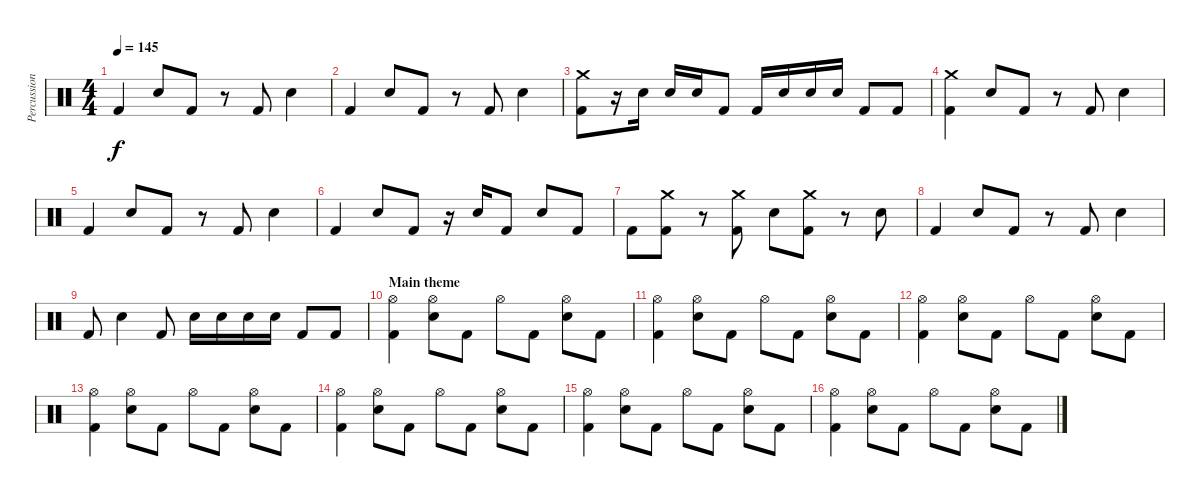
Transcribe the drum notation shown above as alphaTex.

\track ("Percussioni" "Percussion") {instrument percussion}
\staff {score}
\articulation defaults
\ts (4 4)
\tempo 145
\clef neutral
\ks c "Kick (hit) 2".4{dy f} "Electric Snare (hit)".8 "Kick (hit) 2".8
r.8 "Kick (hit) 2".8 "Electric Snare (hit)".4 |
"Kick (hit) 2".4 "Electric Snare (hit)".8 "Kick (hit) 2".8 r.8 "Kick (hit) 2".8 "Electric Snare (hit)".4 |
("Crash medium (hit)" "Kick (hit) 2").8 r.16 "Electric Snare (hit)".16 "Electric Snare (hit)".16 "Electric Snare (hit)".16 "Kick (hit) 2".8 "Kick (hit) 2".16 "Electric Snare (hit)".16 "Electric Snare (hit)".16 "Electric Snare (hit)".16 "Kick (hit) 2".8 "Kick (hit) 2".8 |
("Crash medium (hit)" "Kick (hit) 2").4 "Electric Snare (hit)".8 "Kick (hit) 2".8 r.8 "Kick (hit) 2".8 "Electric Snare (hit)".4 |
"Kick (hit) 2".4 "Electric Snare (hit)".8 "Kick (hit) 2".8 r.8 "Kick (hit) 2".8 "Electric Snare (hit)".4 |
"Kick (hit) 2".4 "Electric Snare (hit)".8 "Kick (hit) 2".8 r.16 "Electric Snare (hit)".16 "Kick (hit) 2".8 "Electric Snare (hit)".8 "Kick (hit) 2".8 |
"Kick (hit) 2".8 ("Crash medium (hit)" "Kick (hit) 2").8 r.8 ("Crash medium (hit)" "Kick (hit) 2").8 "Electric Snare (hit)".8 ("Crash medium (hit)" "Kick (hit) 2").8 r.8 "Electric Snare (hit)".8 |
"Kick (hit) 2".4 "Electric Snare (hit)".8 "Kick (hit) 2".8 r.8 "Kick (hit) 2".8 "Electric Snare (hit)".4 |
"Kick (hit) 2".8 "Electric Snare (hit)".4 "Kick (hit) 2".8 "Electric Snare (hit)".16 "Electric Snare (hit)".16 "Electric Snare (hit)".16 "Electric Snare (hit)".16 "Kick (hit) 2".8 "Kick (hit) 2".8 |
\section ("" "Main theme")
("Hi-Hat (open)" "Kick (hit) 2").4 ("Hi-Hat (open)" "Electric Snare (hit)").8 "Kick (hit) 2".8 "Hi-Hat (open)".8 "Kick (hit) 2".8 ("Hi-Hat (open)" "Electric Snare (hit)").8 "Kick (hit) 2".8 |
("Hi-Hat (open)" "Kick (hit) 2").4 ("Hi-Hat (open)" "Electric Snare (hit)").8 "Kick (hit) 2".8 "Hi-Hat (open)".8 "Kick (hit) 2".8 ("Hi-Hat (open)" "Electric Snare (hit)").8 "Kick (hit) 2".8 |
("Hi-Hat (open)" "Kick (hit) 2").4 ("Hi-Hat (open)" "Electric Snare (hit)").8 "Kick (hit) 2".8 "Hi-Hat (open)".8 "Kick (hit) 2".8 ("Hi-Hat (open)" "Electric Snare (hit)").8 "Kick (hit) 2".8 |
("Hi-Hat (open)" "Kick (hit) 2").4 ("Hi-Hat (open)" "Electric Snare (hit)").8 "Kick (hit) 2".8 "Hi-Hat (open)".8 "Kick (hit) 2".8 ("Hi-Hat (open)" "Electric Snare (hit)").8 "Kick (hit) 2".8 |
("Hi-Hat (open)" "Kick (hit) 2").4 ("Hi-Hat (open)" "Electric Snare (hit)").8 "Kick (hit) 2".8 "Hi-Hat (open)".8 "Kick (hit) 2".8 ("Hi-Hat (open)" "Electric Snare (hit)").8 "Kick (hit) 2".8 |
("Hi-Hat (open)" "Kick (hit) 2").4 ("Hi-Hat (open)" "Electric Snare (hit)").8 "Kick (hit) 2".8 "Hi-Hat (open)".8 "Kick (hit) 2".8 ("Hi-Hat (open)" "Electric Snare (hit)").8 "Kick (hit) 2".8 |
("Hi-Hat (open)" "Kick (hit) 2").4 ("Hi-Hat (open)" "Electric Snare (hit)").8 "Kick (hit) 2".8 "Hi-Hat (open)".8 "Kick (hit) 2".8 ("Hi-Hat (open)" "Electric Snare (hit)").8 "Kick (hit) 2".8
